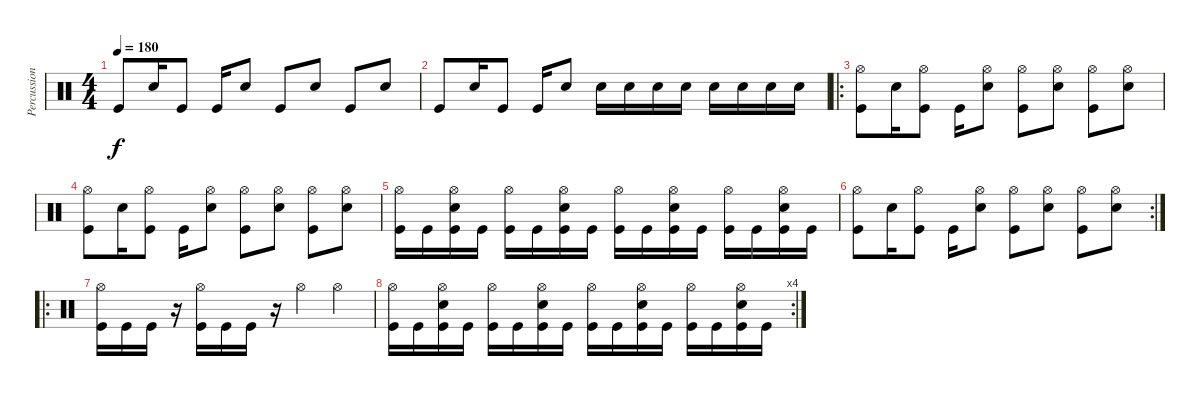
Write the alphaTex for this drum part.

\track ("Percussion" "Percussion") {instrument percussion}
\staff {score}
\articulation defaults
\ts (4 4)
\tempo 180
\clef neutral
\ks c "Kick (hit)".8{dy f} "Snare (hit) 2".16 "Kick (hit)".8 "Kick (hit)".16 "Snare (hit) 2".8 "Kick (hit)".8 "Snare (hit) 2".8 "Kick (hit)".8 "Snare (hit) 2".8
|
"Kick (hit)".8 "Snare (hit) 2".16 "Kick (hit)".8 "Kick (hit)".16 "Snare (hit) 2".8 "Snare (hit) 2".16 "Snare (hit) 2".16 "Snare (hit) 2".16 "Snare (hit) 2".16 "Snare (hit) 2".16 "Snare (hit) 2".16 "Snare (hit) 2".16 "Snare (hit) 2".16 |
\ro
("Hi-Hat (open)" "Kick (hit)").8 "Snare (hit) 2".16 ("Hi-Hat (open)" "Kick (hit)").8 "Kick (hit)".16 ("Hi-Hat (open)" "Snare (hit) 2").8 ("Hi-Hat (open)" "Kick (hit)").8 ("Hi-Hat (open)" "Snare (hit) 2").8 ("Hi-Hat (open)" "Kick (hit)").8 ("Hi-Hat (open)" "Snare (hit) 2").8 |
("Hi-Hat (open)" "Kick (hit)").8 "Snare (hit) 2".16 ("Hi-Hat (open)" "Kick (hit)").8 "Kick (hit)".16 ("Hi-Hat (open)" "Snare (hit) 2").8 ("Hi-Hat (open)" "Kick (hit)").8 ("Hi-Hat (open)" "Snare (hit) 2").8 ("Hi-Hat (open)" "Kick (hit)").8 ("Hi-Hat (open)" "Snare (hit) 2").8 |
("Hi-Hat (open)" "Kick (hit)").16 "Kick (hit)".16 ("Hi-Hat (open)" "Snare (hit) 2" "Kick (hit)").16 "Kick (hit)".16 ("Hi-Hat (open)" "Kick (hit)").16 "Kick (hit)".16 ("Hi-Hat (open)" "Snare (hit) 2" "Kick (hit)").16 "Kick (hit)".16 ("Hi-Hat (open)" "Kick (hit)").16 "Kick (hit)".16 ("Hi-Hat (open)" "Snare (hit) 2" "Kick (hit)").16 "Kick (hit)".16 ("Hi-Hat (open)" "Kick (hit)").16 "Kick (hit)".16 ("Hi-Hat (open)" "Snare (hit) 2" "Kick (hit)").16 "Kick (hit)".16 |
\rc 2
("Hi-Hat (open)" "Kick (hit)").8 "Snare (hit) 2".16 ("Hi-Hat (open)" "Kick (hit)").8 "Kick (hit)".16 ("Hi-Hat (open)" "Snare (hit) 2").8 ("Hi-Hat (open)" "Kick (hit)").8 ("Hi-Hat (open)" "Snare (hit) 2").8 ("Hi-Hat (open)" "Kick (hit)").8 ("Hi-Hat (open)" "Snare (hit) 2").8 |
\ro
("Hi-Hat (open)" "Kick (hit)").16 "Kick (hit)".16 "Kick (hit)".16 r.16 ("Hi-Hat (open)" "Kick (hit)").16 "Kick (hit)".16 "Kick (hit)".16 r.16 "Hi-Hat (open)".4 "Hi-Hat (open)".4 |
\rc 4
("Hi-Hat (open)" "Kick (hit)").16 "Kick (hit)".16 ("Hi-Hat (open)" "Snare (hit) 2" "Kick (hit)").16 "Kick (hit)".16 ("Hi-Hat (open)" "Kick (hit)").16 "Kick (hit)".16 ("Hi-Hat (open)" "Snare (hit) 2" "Kick (hit)").16 "Kick (hit)".16 ("Hi-Hat (open)" "Kick (hit)").16 "Kick (hit)".16 ("Hi-Hat (open)" "Snare (hit) 2" "Kick (hit)").16 "Kick (hit)".16 ("Hi-Hat (open)" "Kick (hit)").16 "Kick (hit)".16 ("Hi-Hat (open)" "Snare (hit) 2" "Kick (hit)").16 "Kick (hit)".16
